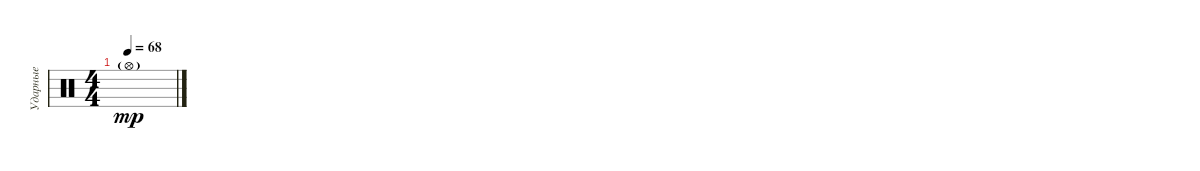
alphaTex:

\track ("Ударные" "Ударные") {instrument percussion}
\staff {score}
\articulation defaults
\ts (4 4)
\tempo 68
\clef neutral
\ks c "Hi-Hat (open)"{g}.1{dy mp}
